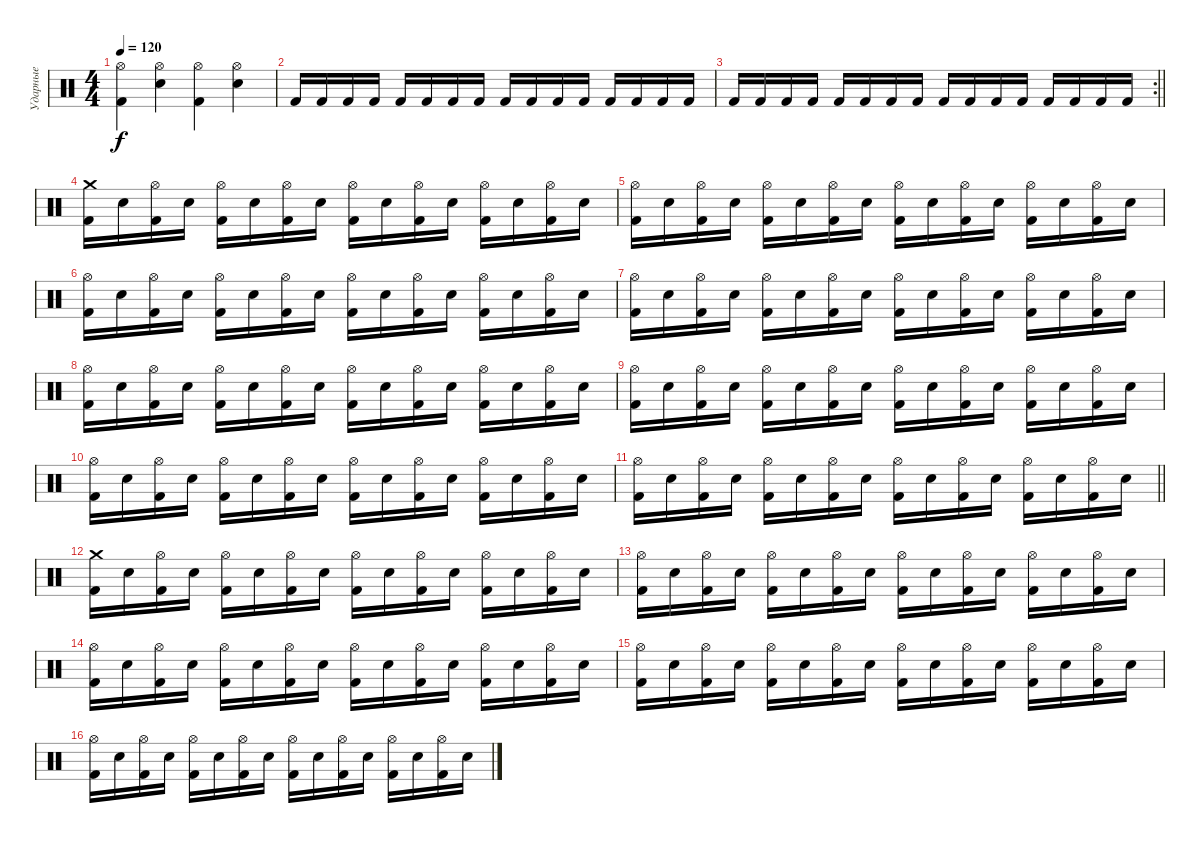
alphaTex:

\track ("Ударные" "Ударные") {instrument percussion}
\staff {score}
\articulation defaults
\ts (4 4)
\tempo 120
\clef neutral
\ks c
("Kick (hit) 2" "Hi-Hat (open)").4{dy f} ("Electric Snare (hit)" "Hi-Hat (open)").4 ("Kick (hit) 2" "Hi-Hat (open)").4 ("Electric Snare (hit)" "Hi-Hat (open)").4 |
"Kick (hit) 2".16 "Kick (hit) 2".16 "Kick (hit) 2".16 "Kick (hit) 2".16 "Kick (hit) 2".16 "Kick (hit) 2".16 "Kick (hit) 2".16 "Kick (hit) 2".16 "Kick (hit) 2".16 "Kick (hit) 2".16 "Kick (hit) 2".16 "Kick (hit) 2".16 "Kick (hit) 2".16 "Kick (hit) 2".16 "Kick (hit) 2".16 "Kick (hit) 2".16 |
\rc 2
\barLineRight lightlight "Kick (hit) 2".16 "Kick (hit) 2".16 "Kick (hit) 2".16 "Kick (hit) 2".16 "Kick (hit) 2".16 "Kick (hit) 2".16 "Kick (hit) 2".16 "Kick (hit) 2".16 "Kick (hit) 2".16 "Kick (hit) 2".16 "Kick (hit) 2".16 "Kick (hit) 2".16 "Kick (hit) 2".16 "Kick (hit) 2".16 "Kick (hit) 2".16 "Kick (hit) 2".16
|
\section ("" "")
("Kick (hit) 2" "Crash medium (hit)").16 "Electric Snare (hit)".16 ("Kick (hit) 2" "Hi-Hat (open)").16 "Electric Snare (hit)".16 ("Kick (hit) 2" "Hi-Hat (open)").16 "Electric Snare (hit)".16 ("Kick (hit) 2" "Hi-Hat (open)").16 "Electric Snare (hit)".16 ("Kick (hit) 2" "Hi-Hat (open)").16 "Electric Snare (hit)".16 ("Kick (hit) 2" "Hi-Hat (open)").16 "Electric Snare (hit)".16 ("Kick (hit) 2" "Hi-Hat (open)").16 "Electric Snare (hit)".16 ("Kick (hit) 2" "Hi-Hat (open)").16 "Electric Snare (hit)".16 |
("Kick (hit) 2" "Hi-Hat (open)").16 "Electric Snare (hit)".16 ("Kick (hit) 2" "Hi-Hat (open)").16 "Electric Snare (hit)".16 ("Kick (hit) 2" "Hi-Hat (open)").16 "Electric Snare (hit)".16 ("Kick (hit) 2" "Hi-Hat (open)").16 "Electric Snare (hit)".16 ("Kick (hit) 2" "Hi-Hat (open)").16 "Electric Snare (hit)".16 ("Kick (hit) 2" "Hi-Hat (open)").16 "Electric Snare (hit)".16 ("Kick (hit) 2" "Hi-Hat (open)").16 "Electric Snare (hit)".16 ("Kick (hit) 2" "Hi-Hat (open)").16 "Electric Snare (hit)".16 |
("Kick (hit) 2" "Hi-Hat (open)").16 "Electric Snare (hit)".16 ("Kick (hit) 2" "Hi-Hat (open)").16 "Electric Snare (hit)".16 ("Kick (hit) 2" "Hi-Hat (open)").16 "Electric Snare (hit)".16 ("Kick (hit) 2" "Hi-Hat (open)").16 "Electric Snare (hit)".16 ("Kick (hit) 2" "Hi-Hat (open)").16 "Electric Snare (hit)".16 ("Kick (hit) 2" "Hi-Hat (open)").16 "Electric Snare (hit)".16 ("Kick (hit) 2" "Hi-Hat (open)").16 "Electric Snare (hit)".16 ("Kick (hit) 2" "Hi-Hat (open)").16 "Electric Snare (hit)".16 |
("Kick (hit) 2" "Hi-Hat (open)").16 "Electric Snare (hit)".16 ("Kick (hit) 2" "Hi-Hat (open)").16 "Electric Snare (hit)".16 ("Kick (hit) 2" "Hi-Hat (open)").16 "Electric Snare (hit)".16 ("Kick (hit) 2" "Hi-Hat (open)").16 "Electric Snare (hit)".16 ("Kick (hit) 2" "Hi-Hat (open)").16 "Electric Snare (hit)".16 ("Kick (hit) 2" "Hi-Hat (open)").16 "Electric Snare (hit)".16 ("Kick (hit) 2" "Hi-Hat (open)").16 "Electric Snare (hit)".16 ("Kick (hit) 2" "Hi-Hat (open)").16 "Electric Snare (hit)".16 |
("Kick (hit) 2" "Hi-Hat (open)").16 "Electric Snare (hit)".16 ("Kick (hit) 2" "Hi-Hat (open)").16 "Electric Snare (hit)".16 ("Kick (hit) 2" "Hi-Hat (open)").16 "Electric Snare (hit)".16 ("Kick (hit) 2" "Hi-Hat (open)").16 "Electric Snare (hit)".16 ("Kick (hit) 2" "Hi-Hat (open)").16 "Electric Snare (hit)".16 ("Kick (hit) 2" "Hi-Hat (open)").16 "Electric Snare (hit)".16 ("Kick (hit) 2" "Hi-Hat (open)").16 "Electric Snare (hit)".16 ("Kick (hit) 2" "Hi-Hat (open)").16 "Electric Snare (hit)".16 |
("Kick (hit) 2" "Hi-Hat (open)").16 "Electric Snare (hit)".16 ("Kick (hit) 2" "Hi-Hat (open)").16 "Electric Snare (hit)".16 ("Kick (hit) 2" "Hi-Hat (open)").16 "Electric Snare (hit)".16 ("Kick (hit) 2" "Hi-Hat (open)").16 "Electric Snare (hit)".16 ("Kick (hit) 2" "Hi-Hat (open)").16 "Electric Snare (hit)".16 ("Kick (hit) 2" "Hi-Hat (open)").16 "Electric Snare (hit)".16 ("Kick (hit) 2" "Hi-Hat (open)").16 "Electric Snare (hit)".16 ("Kick (hit) 2" "Hi-Hat (open)").16 "Electric Snare (hit)".16 |
("Kick (hit) 2" "Hi-Hat (open)").16 "Electric Snare (hit)".16 ("Kick (hit) 2" "Hi-Hat (open)").16 "Electric Snare (hit)".16 ("Kick (hit) 2" "Hi-Hat (open)").16 "Electric Snare (hit)".16 ("Kick (hit) 2" "Hi-Hat (open)").16 "Electric Snare (hit)".16 ("Kick (hit) 2" "Hi-Hat (open)").16 "Electric Snare (hit)".16 ("Kick (hit) 2" "Hi-Hat (open)").16 "Electric Snare (hit)".16 ("Kick (hit) 2" "Hi-Hat (open)").16 "Electric Snare (hit)".16 ("Kick (hit) 2" "Hi-Hat (open)").16 "Electric Snare (hit)".16 |
\barLineRight lightlight
("Kick (hit) 2" "Hi-Hat (open)").16 "Electric Snare (hit)".16 ("Kick (hit) 2" "Hi-Hat (open)").16 "Electric Snare (hit)".16 ("Kick (hit) 2" "Hi-Hat (open)").16 "Electric Snare (hit)".16 ("Kick (hit) 2" "Hi-Hat (open)").16 "Electric Snare (hit)".16 ("Kick (hit) 2" "Hi-Hat (open)").16 "Electric Snare (hit)".16 ("Kick (hit) 2" "Hi-Hat (open)").16 "Electric Snare (hit)".16 ("Kick (hit) 2" "Hi-Hat (open)").16 "Electric Snare (hit)".16 ("Kick (hit) 2" "Hi-Hat (open)").16 "Electric Snare (hit)".16 |
\section ("" "")
("Kick (hit) 2" "Crash medium (hit)").16 "Electric Snare (hit)".16 ("Kick (hit) 2" "Hi-Hat (open)").16 "Electric Snare (hit)".16 ("Kick (hit) 2" "Hi-Hat (open)").16 "Electric Snare (hit)".16 ("Kick (hit) 2" "Hi-Hat (open)").16 "Electric Snare (hit)".16 ("Kick (hit) 2" "Hi-Hat (open)").16 "Electric Snare (hit)".16 ("Kick (hit) 2" "Hi-Hat (open)").16 "Electric Snare (hit)".16 ("Kick (hit) 2" "Hi-Hat (open)").16 "Electric Snare (hit)".16 ("Kick (hit) 2" "Hi-Hat (open)").16 "Electric Snare (hit)".16 |
("Kick (hit) 2" "Hi-Hat (open)").16 "Electric Snare (hit)".16 ("Kick (hit) 2" "Hi-Hat (open)").16 "Electric Snare (hit)".16 ("Kick (hit) 2" "Hi-Hat (open)").16 "Electric Snare (hit)".16 ("Kick (hit) 2" "Hi-Hat (open)").16 "Electric Snare (hit)".16 ("Kick (hit) 2" "Hi-Hat (open)").16 "Electric Snare (hit)".16 ("Kick (hit) 2" "Hi-Hat (open)").16 "Electric Snare (hit)".16 ("Kick (hit) 2" "Hi-Hat (open)").16 "Electric Snare (hit)".16 ("Kick (hit) 2" "Hi-Hat (open)").16 "Electric Snare (hit)".16 |
("Kick (hit) 2" "Hi-Hat (open)").16 "Electric Snare (hit)".16 ("Kick (hit) 2" "Hi-Hat (open)").16 "Electric Snare (hit)".16 ("Kick (hit) 2" "Hi-Hat (open)").16 "Electric Snare (hit)".16 ("Kick (hit) 2" "Hi-Hat (open)").16 "Electric Snare (hit)".16 ("Kick (hit) 2" "Hi-Hat (open)").16 "Electric Snare (hit)".16 ("Kick (hit) 2" "Hi-Hat (open)").16 "Electric Snare (hit)".16 ("Kick (hit) 2" "Hi-Hat (open)").16 "Electric Snare (hit)".16 ("Kick (hit) 2" "Hi-Hat (open)").16 "Electric Snare (hit)".16 |
("Kick (hit) 2" "Hi-Hat (open)").16 "Electric Snare (hit)".16 ("Kick (hit) 2" "Hi-Hat (open)").16 "Electric Snare (hit)".16 ("Kick (hit) 2" "Hi-Hat (open)").16 "Electric Snare (hit)".16 ("Kick (hit) 2" "Hi-Hat (open)").16 "Electric Snare (hit)".16 ("Kick (hit) 2" "Hi-Hat (open)").16 "Electric Snare (hit)".16 ("Kick (hit) 2" "Hi-Hat (open)").16 "Electric Snare (hit)".16 ("Kick (hit) 2" "Hi-Hat (open)").16 "Electric Snare (hit)".16 ("Kick (hit) 2" "Hi-Hat (open)").16 "Electric Snare (hit)".16 |
("Kick (hit) 2" "Hi-Hat (open)").16 "Electric Snare (hit)".16 ("Kick (hit) 2" "Hi-Hat (open)").16 "Electric Snare (hit)".16 ("Kick (hit) 2" "Hi-Hat (open)").16 "Electric Snare (hit)".16 ("Kick (hit) 2" "Hi-Hat (open)").16 "Electric Snare (hit)".16 ("Kick (hit) 2" "Hi-Hat (open)").16 "Electric Snare (hit)".16 ("Kick (hit) 2" "Hi-Hat (open)").16 "Electric Snare (hit)".16 ("Kick (hit) 2" "Hi-Hat (open)").16 "Electric Snare (hit)".16 ("Kick (hit) 2" "Hi-Hat (open)").16 "Electric Snare (hit)".16
